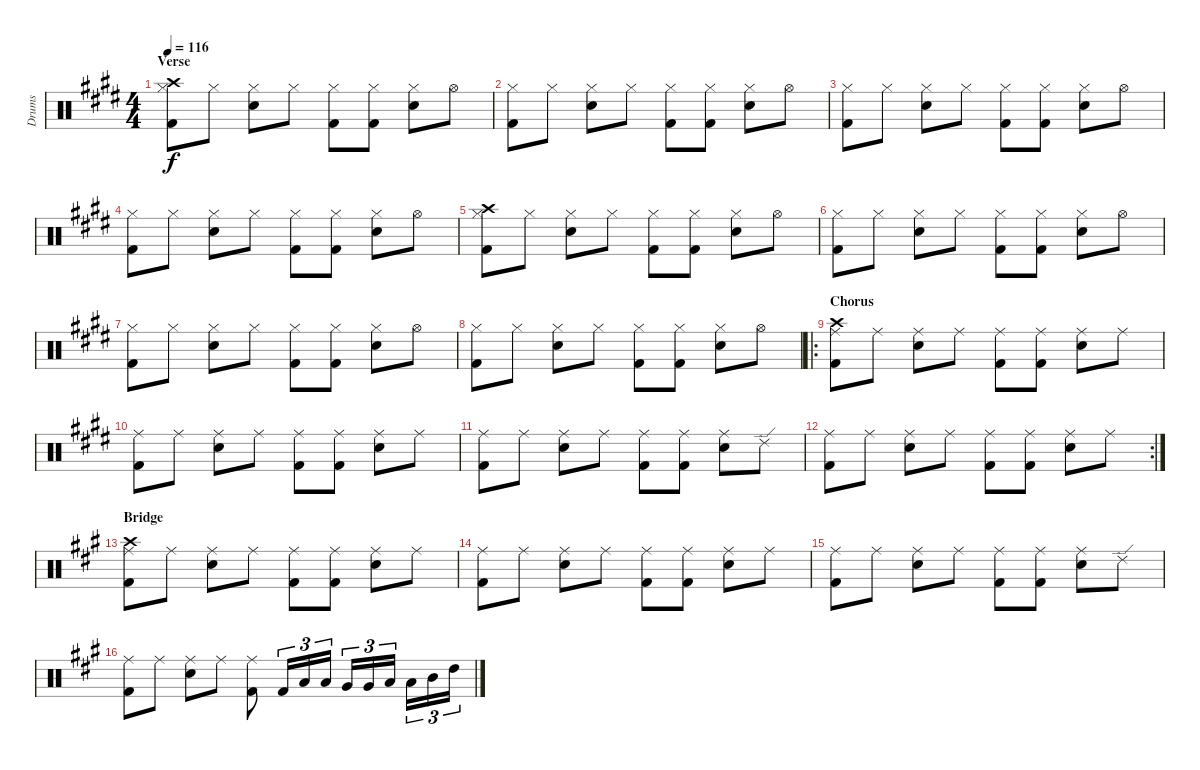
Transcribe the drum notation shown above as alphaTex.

\track ("Drums" "Drums") {instrument percussion}
\staff {score}
\articulation defaults
\ts (4 4)
\section ("" "Verse")
\tempo 116
\clef neutral
\ks c#minor
("Hi-Hat (closed)" "Crash high (hit)" "Kick (hit) 2").8{dy f} "Hi-Hat (closed)".8 ("Hi-Hat (closed)" "Snare (hit) 2").8 "Hi-Hat (closed)".8 ("Hi-Hat (closed)" "Kick (hit) 2").8 ("Hi-Hat (closed)" "Kick (hit) 2").8 ("Hi-Hat (closed)" "Snare (hit) 2").8 "Hi-Hat (open)".8 |
("Hi-Hat (closed)" "Kick (hit) 2").8 "Hi-Hat (closed)".8 ("Hi-Hat (closed)" "Snare (hit) 2").8 "Hi-Hat (closed)".8 ("Hi-Hat (closed)" "Kick (hit) 2").8 ("Hi-Hat (closed)" "Kick (hit) 2").8 ("Hi-Hat (closed)" "Snare (hit) 2").8 "Hi-Hat (open)".8 |
("Hi-Hat (closed)" "Kick (hit) 2").8 "Hi-Hat (closed)".8 ("Hi-Hat (closed)" "Snare (hit) 2").8 "Hi-Hat (closed)".8 ("Hi-Hat (closed)" "Kick (hit) 2").8 ("Hi-Hat (closed)" "Kick (hit) 2").8 ("Hi-Hat (closed)" "Snare (hit) 2").8 "Hi-Hat (open)".8 |
("Hi-Hat (closed)" "Kick (hit) 2").8 "Hi-Hat (closed)".8 ("Hi-Hat (closed)" "Snare (hit) 2").8 "Hi-Hat (closed)".8 ("Hi-Hat (closed)" "Kick (hit) 2").8 ("Hi-Hat (closed)" "Kick (hit) 2").8 ("Hi-Hat (closed)" "Snare (hit) 2").8 "Hi-Hat (open)".8 |
("Hi-Hat (closed)" "Crash high (hit)" "Kick (hit) 2").8 "Hi-Hat (closed)".8 ("Hi-Hat (closed)" "Snare (hit) 2").8 "Hi-Hat (closed)".8 ("Hi-Hat (closed)" "Kick (hit) 2").8 ("Hi-Hat (closed)" "Kick (hit) 2").8 ("Hi-Hat (closed)" "Snare (hit) 2").8 "Hi-Hat (open)".8 |
("Hi-Hat (closed)" "Kick (hit) 2").8 "Hi-Hat (closed)".8 ("Hi-Hat (closed)" "Snare (hit) 2").8 "Hi-Hat (closed)".8 ("Hi-Hat (closed)" "Kick (hit) 2").8 ("Hi-Hat (closed)" "Kick (hit) 2").8 ("Hi-Hat (closed)" "Snare (hit) 2").8 "Hi-Hat (open)".8 |
("Hi-Hat (closed)" "Kick (hit) 2").8 "Hi-Hat (closed)".8 ("Hi-Hat (closed)" "Snare (hit) 2").8 "Hi-Hat (closed)".8 ("Hi-Hat (closed)" "Kick (hit) 2").8 ("Hi-Hat (closed)" "Kick (hit) 2").8 ("Hi-Hat (closed)" "Snare (hit) 2").8 "Hi-Hat (open)".8 |
("Hi-Hat (closed)" "Kick (hit) 2").8 "Hi-Hat (closed)".8 ("Hi-Hat (closed)" "Snare (hit) 2").8 "Hi-Hat (closed)".8 ("Hi-Hat (closed)" "Kick (hit) 2").8 ("Hi-Hat (closed)" "Kick (hit) 2").8 ("Hi-Hat (closed)" "Snare (hit) 2").8 "Hi-Hat (open)".8 |
\ro
\section ("" "Chorus")
("Ride (middle)" "Crash high (hit)" "Kick (hit) 2").8 "Ride (middle)".8 ("Ride (middle)" "Snare (hit) 2").8 "Ride (middle)".8 ("Ride (middle)" "Kick (hit) 2").8 ("Ride (middle)" "Kick (hit) 2").8 ("Ride (middle)" "Snare (hit) 2").8 "Ride (middle)".8 |
("Ride (middle)" "Kick (hit) 2").8 "Ride (middle)".8 ("Ride (middle)" "Snare (hit) 2").8 "Ride (middle)".8 ("Ride (middle)" "Kick (hit) 2").8 ("Ride (middle)" "Kick (hit) 2").8 ("Ride (middle)" "Snare (hit) 2").8 "Ride (middle)".8 |
("Ride (middle)" "Kick (hit) 2").8 "Ride (middle)".8 ("Ride (middle)" "Snare (hit) 2").8 "Ride (middle)".8 ("Ride (middle)" "Kick (hit) 2").8 ("Ride (middle)" "Kick (hit) 2").8 ("Ride (middle)" "Snare (hit) 2").8 "Ride (edge) 2".8 |
\rc 2
("Ride (middle)" "Kick (hit) 2").8 "Ride (middle)".8 ("Ride (middle)" "Snare (hit) 2").8 "Ride (middle)".8 ("Ride (middle)" "Kick (hit) 2").8 ("Ride (middle)" "Kick (hit) 2").8 ("Ride (middle)" "Snare (hit) 2").8 "Ride (middle)".8 |
\section ("" "Bridge")
\ks f#minor
("Ride (middle)" "Crash high (hit)" "Kick (hit) 2").8 "Ride (middle)".8 ("Ride (middle)" "Snare (hit) 2").8 "Ride (middle)".8 ("Ride (middle)" "Kick (hit) 2").8 ("Ride (middle)" "Kick (hit) 2").8 ("Ride (middle)" "Snare (hit) 2").8 "Ride (middle)".8 |
("Ride (middle)" "Kick (hit) 2").8 "Ride (middle)".8 ("Ride (middle)" "Snare (hit) 2").8 "Ride (middle)".8 ("Ride (middle)" "Kick (hit) 2").8 ("Ride (middle)" "Kick (hit) 2").8 ("Ride (middle)" "Snare (hit) 2").8 "Ride (middle)".8 |
("Ride (middle)" "Kick (hit) 2").8 "Ride (middle)".8 ("Ride (middle)" "Snare (hit) 2").8 "Ride (middle)".8 ("Ride (middle)" "Kick (hit) 2").8 ("Ride (middle)" "Kick (hit) 2").8 ("Ride (middle)" "Snare (hit) 2").8 "Ride (edge) 2".8 |
("Ride (middle)" "Kick (hit) 2").8 "Ride (middle)".8 ("Ride (middle)" "Snare (hit) 2").8 "Ride (middle)".8 ("Ride (middle)" "Kick (hit) 2").8 "Kick (hit) 2".16{tu (3 2)} "Low Tom (hit)".16{tu (3 2)} "Low Tom (hit)".16{tu (3 2)} "Very Low Tom (hit)".16{tu (3 2)} "Very Low Tom (hit)".16{tu (3 2)} "Low Floor Tom (hit)".16{tu (3 2)} "Low Floor Tom (hit)".16{tu (3 2)} "Mid Tom (hit)".16{tu (3 2)} "High Tom (hit)".16{tu (3 2)}
